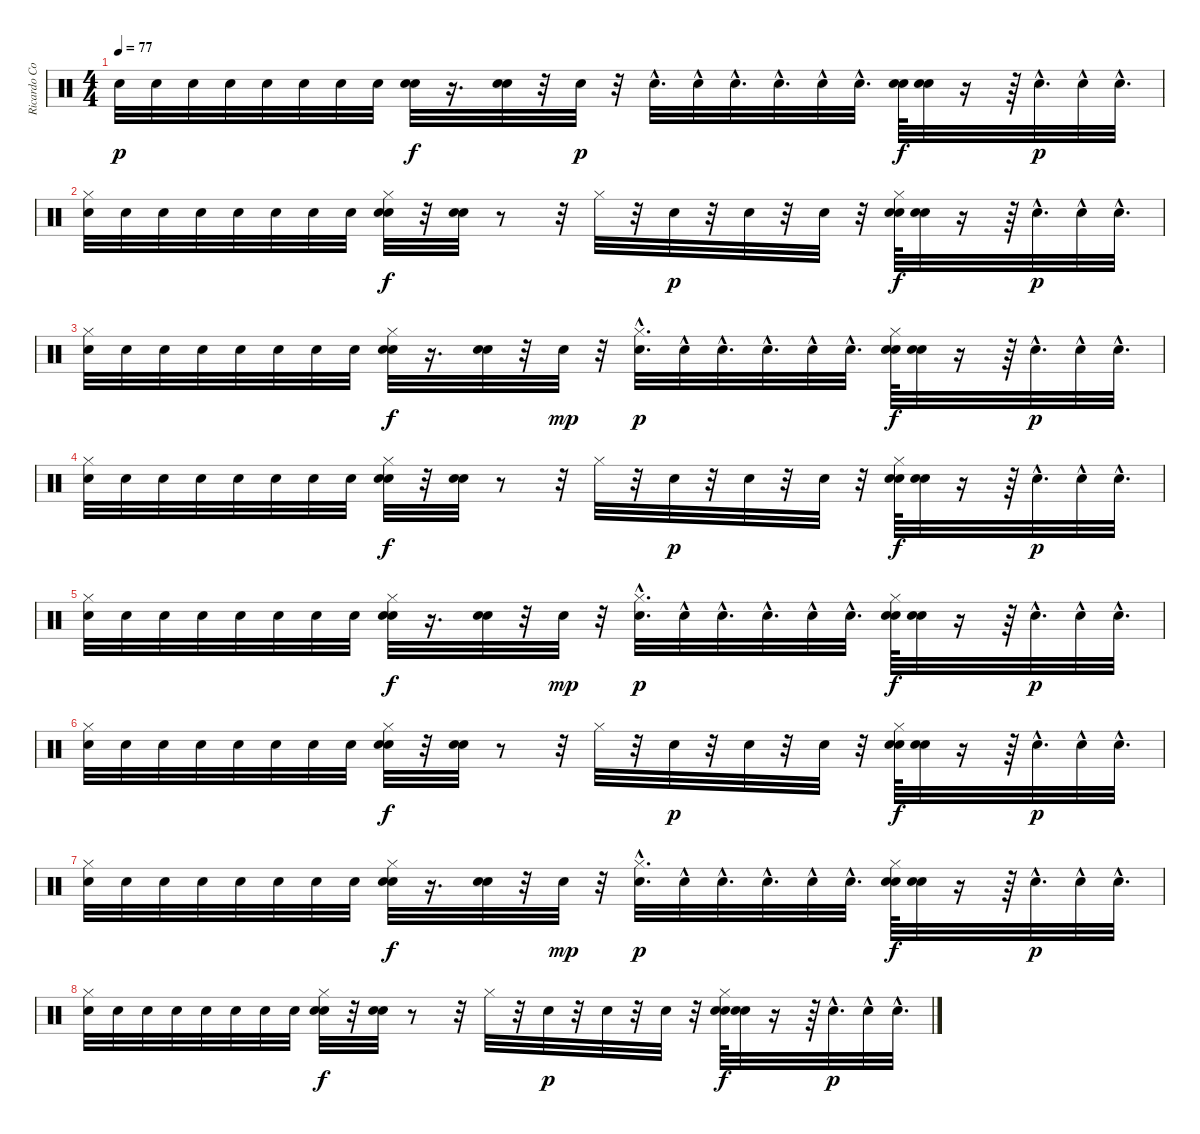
\track ("Ricardo Confessori" "Ricardo Co") {instrument percussion}
\staff {score}
\articulation defaults
\ts (4 4)
\tempo 77
\clef neutral
\ks c "Electric Snare (hit)".32{dy p} "Electric Snare (hit)".32 "Electric Snare (hit)".32 "Electric Snare (hit)".32 "Electric Snare (hit)".32 "Electric Snare (hit)".32 "Electric Snare (hit)".32 "Electric Snare (hit)".32
("Snare (hit) 2" "Electric Snare (hit)").32{dy f} r.16{d} ("Snare (hit) 2" "Electric Snare (hit)").32 r.32 "Electric Snare (hit)".32{dy p} r.32 "Electric Snare (hit)"{hac}.32{d} "Electric Snare (hit)"{hac}.32 "Electric Snare (hit)"{hac}.32{d} "Electric Snare (hit)"{hac}.32{d} "Electric Snare (hit)"{hac}.32 "Electric Snare (hit)"{hac}.32{d} ("Snare (hit) 2" "Electric Snare (hit)").64{dy f} ("Snare (hit) 2" "Electric Snare (hit)").32 r.16 r.64 "Electric Snare (hit)"{hac}.32{d dy p} "Electric Snare (hit)"{hac}.32 "Electric Snare (hit)"{hac}.32{d} |
("Hi-Hat (closed)" "Electric Snare (hit)").32 "Electric Snare (hit)".32 "Electric Snare (hit)".32 "Electric Snare (hit)".32 "Electric Snare (hit)".32 "Electric Snare (hit)".32 "Electric Snare (hit)".32 "Electric Snare (hit)".32 ("Hi-Hat (closed)" "Snare (hit) 2" "Electric Snare (hit)").32{dy f} r.32 ("Snare (hit) 2" "Electric Snare (hit)").32 r.8 r.32 "Hi-Hat (closed)".32 r.32 "Electric Snare (hit)".32{dy p} r.32 "Electric Snare (hit)".32 r.32 "Electric Snare (hit)".32 r.32 ("Hi-Hat (closed)" "Snare (hit) 2" "Electric Snare (hit)").64{dy f} ("Snare (hit) 2" "Electric Snare (hit)").32 r.16 r.64 "Electric Snare (hit)"{hac}.32{d dy p} "Electric Snare (hit)"{hac}.32 "Electric Snare (hit)"{hac}.32{d} |
("Electric Snare (hit)" "Hi-Hat (closed)").32 "Electric Snare (hit)".32 "Electric Snare (hit)".32 "Electric Snare (hit)".32 "Electric Snare (hit)".32 "Electric Snare (hit)".32 "Electric Snare (hit)".32 "Electric Snare (hit)".32 ("Snare (hit) 2" "Electric Snare (hit)" "Hi-Hat (closed)").32{dy f} r.16{d} ("Snare (hit) 2" "Electric Snare (hit)").32 r.32 "Electric Snare (hit)".32{dy mp} r.32 ("Electric Snare (hit)"{hac} "Hi-Hat (closed)").32{d dy p} "Electric Snare (hit)"{hac}.32 "Electric Snare (hit)"{hac}.32{d} "Electric Snare (hit)"{hac}.32{d} "Electric Snare (hit)"{hac}.32 "Electric Snare (hit)"{hac}.32{d} ("Snare (hit) 2" "Electric Snare (hit)" "Hi-Hat (closed)").64{dy f} ("Snare (hit) 2" "Electric Snare (hit)").32 r.16 r.64 "Electric Snare (hit)"{hac}.32{d dy p} "Electric Snare (hit)"{hac}.32 "Electric Snare (hit)"{hac}.32{d} |
("Electric Snare (hit)" "Hi-Hat (closed)").32 "Electric Snare (hit)".32 "Electric Snare (hit)".32 "Electric Snare (hit)".32 "Electric Snare (hit)".32 "Electric Snare (hit)".32 "Electric Snare (hit)".32 "Electric Snare (hit)".32 ("Snare (hit) 2" "Electric Snare (hit)" "Hi-Hat (closed)").32{dy f} r.32 ("Snare (hit) 2" "Electric Snare (hit)").32 r.8 r.32 "Hi-Hat (closed)".32 r.32 "Electric Snare (hit)".32{dy p} r.32 "Electric Snare (hit)".32 r.32 "Electric Snare (hit)".32 r.32 ("Snare (hit) 2" "Electric Snare (hit)" "Hi-Hat (closed)").64{dy f} ("Snare (hit) 2" "Electric Snare (hit)").32 r.16 r.64 "Electric Snare (hit)"{hac}.32{d dy p} "Electric Snare (hit)"{hac}.32 "Electric Snare (hit)"{hac}.32{d} |
("Electric Snare (hit)" "Hi-Hat (closed)").32 "Electric Snare (hit)".32 "Electric Snare (hit)".32 "Electric Snare (hit)".32 "Electric Snare (hit)".32 "Electric Snare (hit)".32 "Electric Snare (hit)".32 "Electric Snare (hit)".32 ("Snare (hit) 2" "Electric Snare (hit)" "Hi-Hat (closed)").32{dy f} r.16{d} ("Snare (hit) 2" "Electric Snare (hit)").32 r.32 "Electric Snare (hit)".32{dy mp} r.32 ("Electric Snare (hit)"{hac} "Hi-Hat (closed)").32{d dy p} "Electric Snare (hit)"{hac}.32 "Electric Snare (hit)"{hac}.32{d} "Electric Snare (hit)"{hac}.32{d} "Electric Snare (hit)"{hac}.32 "Electric Snare (hit)"{hac}.32{d} ("Snare (hit) 2" "Electric Snare (hit)" "Hi-Hat (closed)").64{dy f} ("Snare (hit) 2" "Electric Snare (hit)").32 r.16 r.64 "Electric Snare (hit)"{hac}.32{d dy p} "Electric Snare (hit)"{hac}.32 "Electric Snare (hit)"{hac}.32{d} |
("Electric Snare (hit)" "Hi-Hat (closed)").32 "Electric Snare (hit)".32 "Electric Snare (hit)".32 "Electric Snare (hit)".32 "Electric Snare (hit)".32 "Electric Snare (hit)".32 "Electric Snare (hit)".32 "Electric Snare (hit)".32 ("Snare (hit) 2" "Electric Snare (hit)" "Hi-Hat (closed)").32{dy f} r.32 ("Snare (hit) 2" "Electric Snare (hit)").32 r.8 r.32 "Hi-Hat (closed)".32 r.32 "Electric Snare (hit)".32{dy p} r.32 "Electric Snare (hit)".32 r.32 "Electric Snare (hit)".32 r.32 ("Snare (hit) 2" "Electric Snare (hit)" "Hi-Hat (closed)").64{dy f} ("Snare (hit) 2" "Electric Snare (hit)").32 r.16 r.64 "Electric Snare (hit)"{hac}.32{d dy p} "Electric Snare (hit)"{hac}.32 "Electric Snare (hit)"{hac}.32{d} |
("Electric Snare (hit)" "Hi-Hat (closed)").32 "Electric Snare (hit)".32 "Electric Snare (hit)".32 "Electric Snare (hit)".32 "Electric Snare (hit)".32 "Electric Snare (hit)".32 "Electric Snare (hit)".32 "Electric Snare (hit)".32 ("Snare (hit) 2" "Electric Snare (hit)" "Hi-Hat (closed)").32{dy f} r.16{d} ("Snare (hit) 2" "Electric Snare (hit)").32 r.32 "Electric Snare (hit)".32{dy mp} r.32 ("Electric Snare (hit)"{hac} "Hi-Hat (closed)").32{d dy p} "Electric Snare (hit)"{hac}.32 "Electric Snare (hit)"{hac}.32{d} "Electric Snare (hit)"{hac}.32{d} "Electric Snare (hit)"{hac}.32 "Electric Snare (hit)"{hac}.32{d} ("Snare (hit) 2" "Electric Snare (hit)" "Hi-Hat (closed)").64{dy f} ("Snare (hit) 2" "Electric Snare (hit)").32 r.16 r.64 "Electric Snare (hit)"{hac}.32{d dy p} "Electric Snare (hit)"{hac}.32 "Electric Snare (hit)"{hac}.32{d} |
("Electric Snare (hit)" "Hi-Hat (closed)").32 "Electric Snare (hit)".32 "Electric Snare (hit)".32 "Electric Snare (hit)".32 "Electric Snare (hit)".32 "Electric Snare (hit)".32 "Electric Snare (hit)".32 "Electric Snare (hit)".32 ("Snare (hit) 2" "Electric Snare (hit)" "Hi-Hat (closed)").32{dy f} r.32 ("Snare (hit) 2" "Electric Snare (hit)").32 r.8 r.32 "Hi-Hat (closed)".32 r.32 "Electric Snare (hit)".32{dy p} r.32 "Electric Snare (hit)".32 r.32 "Electric Snare (hit)".32 r.32 ("Snare (hit) 2" "Electric Snare (hit)" "Hi-Hat (closed)").64{dy f} ("Snare (hit) 2" "Electric Snare (hit)").32 r.16 r.64 "Electric Snare (hit)"{hac}.32{d dy p} "Electric Snare (hit)"{hac}.32 "Electric Snare (hit)"{hac}.32{d}
